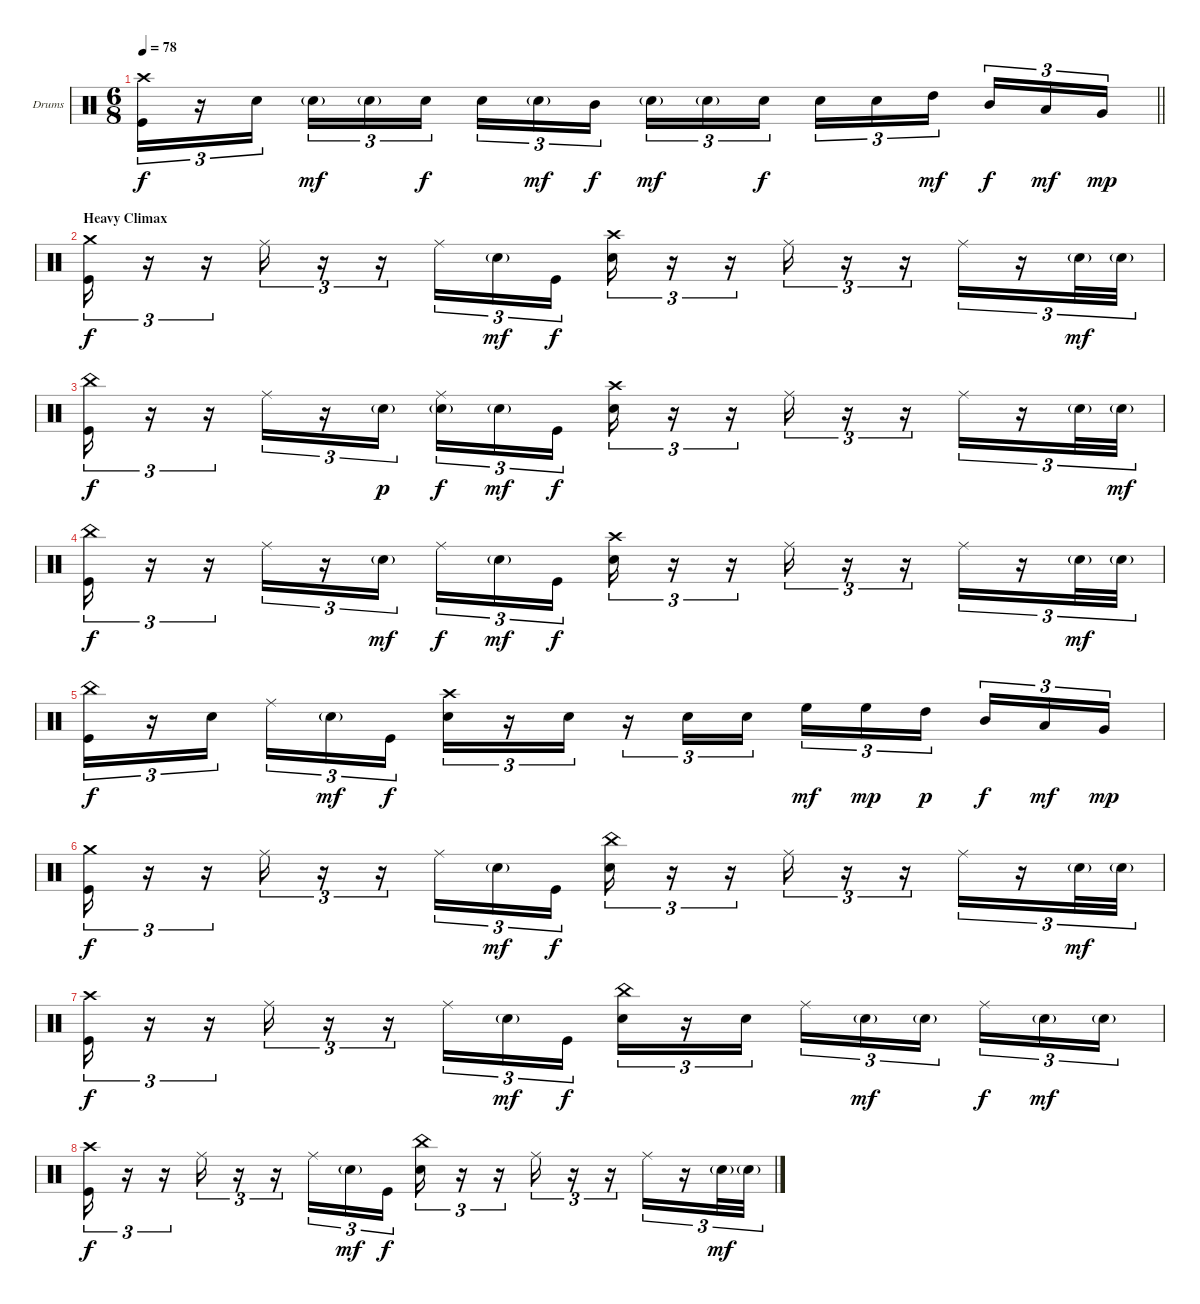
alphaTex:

\bracketExtendMode nobrackets
\firstSystemTrackNameOrientation horizontal
\otherSystemsTrackNameOrientation horizontal
\track ("Drumkit" "Drums") {instrument percussion}
\staff {score}
\articulation defaults
\ts (6 8)
\tempo 78
\clef neutral
\barLineRight lightlight
\ks c
("Crash high (hit)" "Kick (hit)").16{tu (3 2) dy f} r.16{tu (3 2)} "Snare (hit) 2".16{tu (3 2)} "Snare (hit) 2"{g}.16{tu (3 2) dy mf} "Snare (hit) 2"{g}.16{tu (3 2)} "Snare (hit) 2".16{tu (3 2) dy f} "Snare (hit) 2".16{tu (3 2)} "Snare (hit) 2"{g}.16{tu (3 2) dy mf} "Mid Tom (hit)".16{tu (3 2) dy f} "Snare (hit) 2"{g}.16{tu (3 2) dy mf} "Snare (hit) 2"{g}.16{tu (3 2)} "Snare (hit) 2".16{tu (3 2) dy f} "Snare (hit) 2".16{tu (3 2)} "Snare (hit) 2".16{tu (3 2)} "High Tom (hit)".16{tu (3 2) dy mf} "Mid Tom (hit)".16{tu (3 2) dy f} "Low Tom (hit)".16{tu (3 2) dy mf} "Very Low Tom (hit)".16{tu (3 2) dy mp} |
\section ("" "Heavy Climax")
("Crash medium (hit)" "Kick (hit)").16{tu (3 2) dy f} r.16{tu (3 2)} r.16{tu (3 2)} "Ride (middle)".16{tu (3 2)} r.16{tu (3 2)} r.16{tu (3 2)} "Ride (middle)".16{tu (3 2)} "Snare (hit) 2"{g}.16{tu (3 2) dy mf} "Kick (hit)".16{tu (3 2) dy f} ("Crash high (hit)" "Snare (hit) 2").16{tu (3 2)} r.16{tu (3 2)} r.16{tu (3 2)} "Ride (middle)".16{tu (3 2)} r.16{tu (3 2)} r.16{tu (3 2)} "Ride (middle)".16{tu (3 2)} r.16{tu (3 2)} "Snare (hit) 2"{g}.32{tu (3 2) dy mf} "Snare (hit) 2"{g}.32{tu (3 2)} |
("China (hit)" "Kick (hit)").16{tu (3 2) dy f} r.16{tu (3 2)} r.16{tu (3 2)} "Ride (middle)".16{tu (3 2)} r.16{tu (3 2)} "Snare (hit) 2"{g}.16{tu (3 2) dy p} ("Ride (middle)" "Snare (hit) 2"{g}).16{tu (3 2) dy f} "Snare (hit) 2"{g}.16{tu (3 2) dy mf} "Kick (hit)".16{tu (3 2) dy f} ("Crash high (hit)" "Snare (hit) 2").16{tu (3 2)} r.16{tu (3 2)} r.16{tu (3 2)} "Ride (middle)".16{tu (3 2)} r.16{tu (3 2)} r.16{tu (3 2)} "Ride (middle)".16{tu (3 2)} r.16{tu (3 2)} "Snare (hit) 2"{g}.32{tu (3 2)} "Snare (hit) 2"{g}.32{tu (3 2) dy mf} |
("China (hit)" "Kick (hit)").16{tu (3 2) dy f} r.16{tu (3 2)} r.16{tu (3 2)} "Ride (middle)".16{tu (3 2)} r.16{tu (3 2)} "Snare (hit) 2"{g}.16{tu (3 2) dy mf} "Ride (middle)".16{tu (3 2) dy f} "Snare (hit) 2"{g}.16{tu (3 2) dy mf} "Kick (hit)".16{tu (3 2) dy f} ("Crash high (hit)" "Snare (hit) 2").16{tu (3 2)} r.16{tu (3 2)} r.16{tu (3 2)} "Ride (middle)".16{tu (3 2)} r.16{tu (3 2)} r.16{tu (3 2)} "Ride (middle)".16{tu (3 2)} r.16{tu (3 2)} "Snare (hit) 2"{g}.32{tu (3 2) dy mf} "Snare (hit) 2"{g}.32{tu (3 2)} |
("China (hit)" "Kick (hit)").16{tu (3 2) dy f} r.16{tu (3 2)} "Snare (hit) 2".16{tu (3 2)} "Ride (middle)".16{tu (3 2)} "Snare (hit) 2"{g}.16{tu (3 2) dy mf} "Kick (hit)".16{tu (3 2) dy f} ("Crash high (hit)" "Snare (hit) 2").16{tu (3 2)} r.16{tu (3 2)} "Snare (hit) 2".16{tu (3 2)} r.16{tu (3 2)} "Snare (hit) 2".16{tu (3 2)} "Snare (hit) 2".16{tu (3 2)} "High Floor Tom (hit)".16{tu (3 2) dy mf} "High Floor Tom (hit)".16{tu (3 2) dy mp} "High Tom (hit)".16{tu (3 2) dy p} "Mid Tom (hit)".16{tu (3 2) dy f} "Low Tom (hit)".16{tu (3 2) dy mf} "Very Low Tom (hit)".16{tu (3 2) dy mp} |
("Crash medium (hit)" "Kick (hit)").16{tu (3 2) dy f} r.16{tu (3 2)} r.16{tu (3 2)} "Ride (middle)".16{tu (3 2)} r.16{tu (3 2)} r.16{tu (3 2)} "Ride (middle)".16{tu (3 2)} "Snare (hit) 2"{g}.16{tu (3 2) dy mf} "Kick (hit)".16{tu (3 2) dy f} ("China (hit)" "Snare (hit) 2").16{tu (3 2)} r.16{tu (3 2)} r.16{tu (3 2)} "Ride (middle)".16{tu (3 2)} r.16{tu (3 2)} r.16{tu (3 2)} "Ride (middle)".16{tu (3 2)} r.16{tu (3 2)} "Snare (hit) 2"{g}.32{tu (3 2) dy mf} "Snare (hit) 2"{g}.32{tu (3 2)} |
("Crash high (hit)" "Kick (hit)").16{tu (3 2) dy f} r.16{tu (3 2)} r.16{tu (3 2)} "Ride (middle)".16{tu (3 2)} r.16{tu (3 2)} r.16{tu (3 2)} "Ride (middle)".16{tu (3 2)} "Snare (hit) 2"{g}.16{tu (3 2) dy mf} "Kick (hit)".16{tu (3 2) dy f} ("China (hit)" "Snare (hit) 2").16{tu (3 2)} r.16{tu (3 2)} "Snare (hit) 2".16{tu (3 2)} "Ride (middle)".16{tu (3 2)} "Snare (hit) 2"{g}.16{tu (3 2) dy mf} "Snare (hit) 2"{g}.16{tu (3 2)} "Ride (middle)".16{tu (3 2) dy f} "Snare (hit) 2"{g}.16{tu (3 2) dy mf} "Snare (hit) 2"{g}.16{tu (3 2)} |
("Crash high (hit)" "Kick (hit)").16{tu (3 2) dy f} r.16{tu (3 2)} r.16{tu (3 2)} "Ride (middle)".16{tu (3 2)} r.16{tu (3 2)} r.16{tu (3 2)} "Ride (middle)".16{tu (3 2)} "Snare (hit) 2"{g}.16{tu (3 2) dy mf} "Kick (hit)".16{tu (3 2) dy f} ("China (hit)" "Snare (hit) 2").16{tu (3 2)} r.16{tu (3 2)} r.16{tu (3 2)} "Ride (middle)".16{tu (3 2)} r.16{tu (3 2)} r.16{tu (3 2)} "Ride (middle)".16{tu (3 2)} r.16{tu (3 2)} "Snare (hit) 2"{g}.32{tu (3 2) dy mf} "Snare (hit) 2"{g}.32{tu (3 2)}
